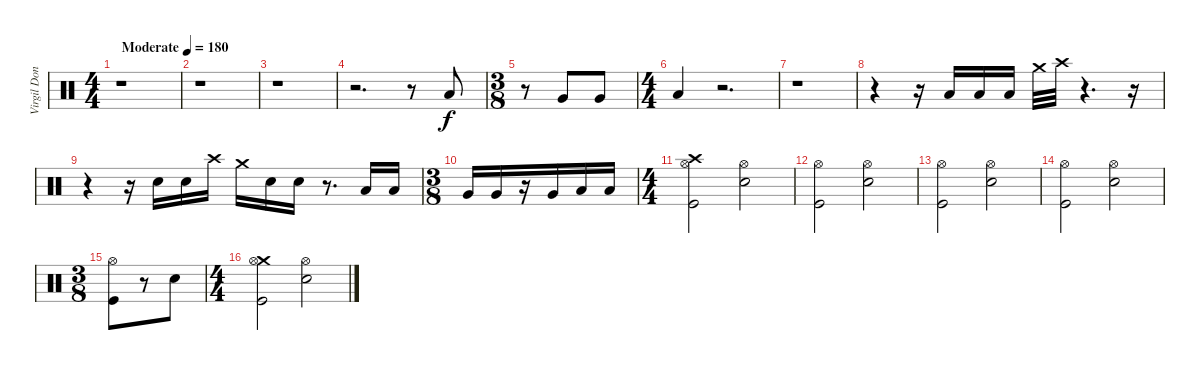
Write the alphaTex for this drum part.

\track ("Virgil Donati" "Virgil Don") {instrument percussion}
\staff {score}
\articulation defaults
\ts (4 4)
\tempo (180 "Moderate")
\clef neutral
\ks c
r.1{dy f} |
r.1 |
r.1 |
r.2{d} r.8 "Low Tom (hit)".8 |
\ts (3 8)
r.8 "Very Low Tom (hit)".8 "Very Low Tom (hit)".8 |
\ts (4 4)
"Low Floor Tom (hit)".4 r.2{d} |
r.1 |
r.4 r.16 "Low Floor Tom (hit)".16{volume 8} "Low Floor Tom (hit)".16{volume 8} "Low Floor Tom (hit)".16{volume 9} "Crash medium (hit)".32{volume 5} "Crash high (hit)".32{volume 6} r.4{d} r.16 |
r.4 r.16 "Electric Snare (hit)".16 "Electric Snare (hit)".16 "Crash high (hit)".16 "Crash medium (hit)".16 "Electric Snare (hit)".16 "Electric Snare (hit)".16 r.8{d} "Low Tom (hit)".16{volume 8} "Low Tom (hit)".16 |
\ts (3 8)
"Very Low Tom (hit)".16{volume 10} "Very Low Tom (hit)".16 r.16 "Very Low Tom (hit)".16{volume 12} "Low Floor Tom (hit)".16 "Low Floor Tom (hit)".16 |
\ts (4 4)
("Crash high (hit)" "Hi-Hat (open)" "Kick (hit)").2{volume 13} ("Hi-Hat (open)" "Electric Snare (hit)").2 |
("Hi-Hat (open)" "Kick (hit)").2 ("Hi-Hat (open)" "Electric Snare (hit)").2 |
("Hi-Hat (open)" "Kick (hit)").2 ("Hi-Hat (open)" "Electric Snare (hit)").2 |
("Hi-Hat (open)" "Kick (hit)").2 ("Hi-Hat (open)" "Electric Snare (hit)").2 |
\ts (3 8)
("Hi-Hat (open)" "Kick (hit)").8 r.8 "Electric Snare (hit)".8 |
\ts (4 4)
("Crash medium (hit)" "Hi-Hat (open)" "Kick (hit)").2 ("Hi-Hat (open)" "Electric Snare (hit)").2
